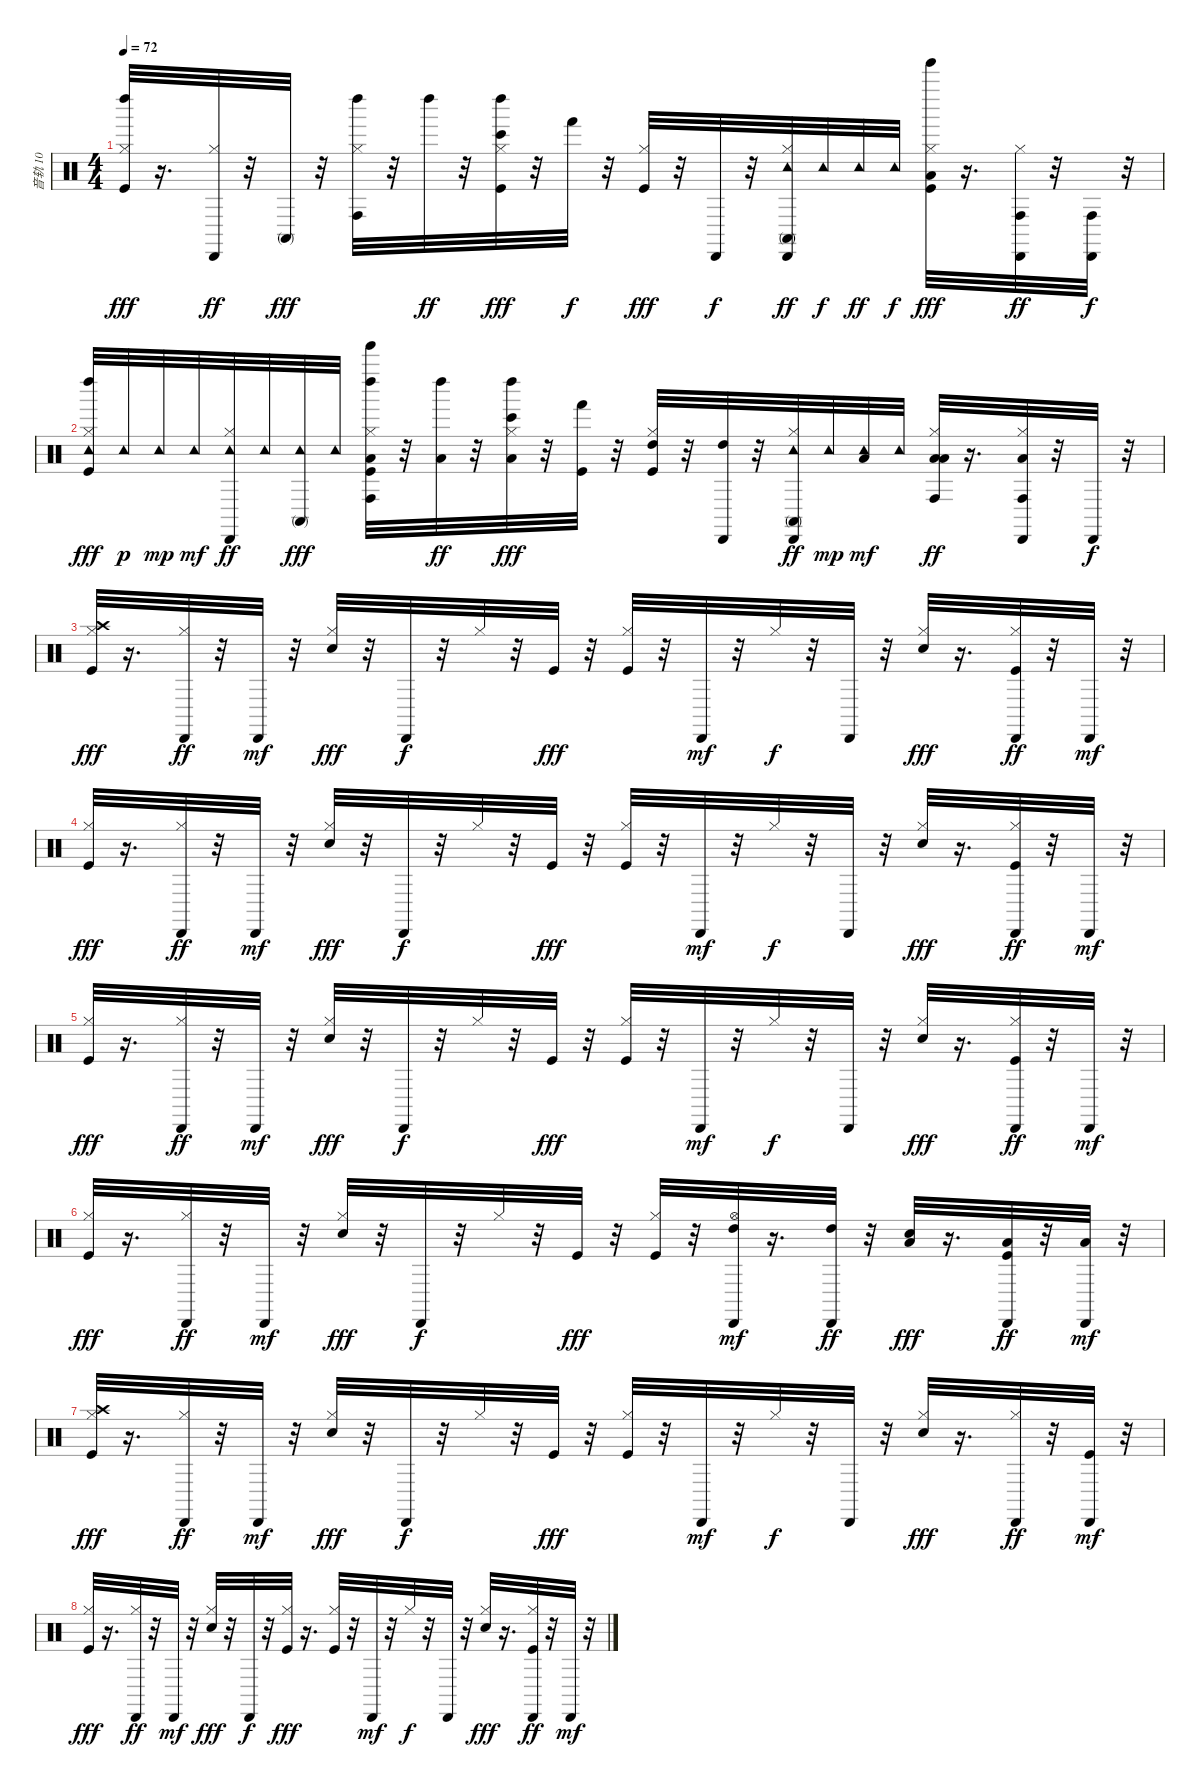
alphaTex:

\track ("音轨 10" "音轨 10") {instrument percussion}
\staff {score}
\articulation defaults
\ts (4 4)
\tempo 72
\clef neutral
\ks c
("Kick (hit)" "Hi-Hat (closed)" "Left Maraca (hit)").32{dy fff} r.16{d} ("Hi-Hat (closed)" "Cabasa (hit)").32{dy ff} r.32 "Conga high (mute)".32{dy fff} r.32 ("Hi-Hat (closed)" "Conga high (hit)" "Left Maraca (hit)").32 r.32 "Left Maraca (hit)".32{dy ff} r.32 ("Kick (hit)" "Hi-Hat (closed)" "Bongo High (hit)" "Left Maraca (hit)").32{dy fff} r.32 "Hand (hit)".32{dy f} r.32 ("Kick (hit)" "Hi-Hat (closed)").32{dy fff} r.32 "Cabasa (hit)".32{dy f} r.32 ("Hi-Hat (closed)" "Tambourine (hit)" "Conga high (mute)" "Cabasa (hit)").32{dy ff} "Tambourine (hit)".32{dy f} "Tambourine (hit)".32{dy ff} "Tambourine (hit)".32{dy f} ("Kick (hit)" "Hi-Hat (closed)" "Low Floor Tom (hit)" "Tinkle Bell (hit)").32{dy fff} r.16{d} ("Hi-Hat (closed)" "Conga high (hit)" "Cabasa (hit)").32{dy ff} r.32 ("Conga high (hit)" "Cabasa (hit)").32{dy f} r.32 |
("Kick (hit)" "Hi-Hat (closed)" "Tambourine (hit)" "Left Maraca (hit)").32{dy fff} "Tambourine (hit)".32{dy p} "Tambourine (hit)".32{dy mp} "Tambourine (hit)".32{dy mf} ("Hi-Hat (closed)" "Tambourine (hit)" "Cabasa (hit)").32{dy ff} "Tambourine (hit)".32 ("Tambourine (hit)" "Conga high (mute)").32{dy fff} "Tambourine (hit)".32 ("Kick (hit)" "Hi-Hat (closed)" "Low Floor Tom (hit)" "Tinkle Bell (hit)" "Conga high (hit)" "Left Maraca (hit)").32 r.32 ("Low Tom (hit)" "Left Maraca (hit)").32{dy ff} r.32 ("Hi-Hat (closed)" "Low Tom (hit)" "Bongo High (hit)" "Left Maraca (hit)").32{dy fff} r.32 ("Kick (hit)" "Hand (hit)").32 r.32 ("Kick (hit)" "Hi-Hat (closed)" "High Tom (hit)").32 r.32 ("High Tom (hit)" "Cabasa (hit)").32 r.32 ("Hi-Hat (closed)" "Tambourine (hit)" "Conga high (mute)" "Cabasa (hit)").32{dy ff} "Tambourine (hit)".32{dy mp} ("Low Tom (hit)" "Tambourine (hit)").32{dy mf} "Tambourine (hit)".32 ("Hi-Hat (closed)" "Low Tom (hit)" "Low Floor Tom (hit)" "Conga high (hit)").32{dy ff} r.16{d} ("Hi-Hat (closed)" "Low Floor Tom (hit)" "Conga high (hit)" "Cabasa (hit)").32 r.32 "Cabasa (hit)".32{dy f} r.32 |
("Kick (hit)" "Hi-Hat (closed)" "Crash high (hit)").32{dy fff} r.16{d} ("Hi-Hat (closed)" "Cabasa (hit)").32{dy ff} r.32 "Cabasa (hit)".32{dy mf} r.32 ("Electric Snare (hit)" "Hi-Hat (closed)").32{dy fff} r.32 "Cabasa (hit)".32{dy f} r.32 "Hi-Hat (closed)".32 r.32 "Kick (hit)".32{dy fff} r.32 ("Kick (hit)" "Hi-Hat (closed)").32 r.32 "Cabasa (hit)".32{dy mf} r.32 "Hi-Hat (closed)".32{dy f} r.32 "Cabasa (hit)".32 r.32 ("Electric Snare (hit)" "Hi-Hat (closed)").32{dy fff} r.16{d} ("Kick (hit)" "Hi-Hat (closed)" "Cabasa (hit)").32{dy ff} r.32 "Cabasa (hit)".32{dy mf} r.32 |
("Kick (hit)" "Hi-Hat (closed)").32{dy fff} r.16{d} ("Hi-Hat (closed)" "Cabasa (hit)").32{dy ff} r.32 "Cabasa (hit)".32{dy mf} r.32 ("Electric Snare (hit)" "Hi-Hat (closed)").32{dy fff} r.32 "Cabasa (hit)".32{dy f} r.32 "Hi-Hat (closed)".32 r.32 "Kick (hit)".32{dy fff} r.32 ("Kick (hit)" "Hi-Hat (closed)").32 r.32 "Cabasa (hit)".32{dy mf} r.32 "Hi-Hat (closed)".32{dy f} r.32 "Cabasa (hit)".32 r.32 ("Electric Snare (hit)" "Hi-Hat (closed)").32{dy fff} r.16{d} ("Kick (hit)" "Hi-Hat (closed)" "Cabasa (hit)").32{dy ff} r.32 "Cabasa (hit)".32{dy mf} r.32 |
("Kick (hit)" "Hi-Hat (closed)").32{dy fff} r.16{d} ("Hi-Hat (closed)" "Cabasa (hit)").32{dy ff} r.32 "Cabasa (hit)".32{dy mf} r.32 ("Electric Snare (hit)" "Hi-Hat (closed)").32{dy fff} r.32 "Cabasa (hit)".32{dy f} r.32 "Hi-Hat (closed)".32 r.32 "Kick (hit)".32{dy fff} r.32 ("Kick (hit)" "Hi-Hat (closed)").32 r.32 "Cabasa (hit)".32{dy mf} r.32 "Hi-Hat (closed)".32{dy f} r.32 "Cabasa (hit)".32 r.32 ("Electric Snare (hit)" "Hi-Hat (closed)").32{dy fff} r.16{d} ("Kick (hit)" "Hi-Hat (closed)" "Cabasa (hit)").32{dy ff} r.32 "Cabasa (hit)".32{dy mf} r.32 |
("Kick (hit)" "Hi-Hat (closed)").32{dy fff} r.16{d} ("Hi-Hat (closed)" "Cabasa (hit)").32{dy ff} r.32 "Cabasa (hit)".32{dy mf} r.32 ("Electric Snare (hit)" "Hi-Hat (closed)").32{dy fff} r.32 "Cabasa (hit)".32{dy f} r.32 "Hi-Hat (closed)".32 r.32 "Kick (hit)".32{dy fff} r.32 ("Kick (hit)" "Hi-Hat (closed)").32 r.32 ("Hi-Hat (open)" "High Tom (hit)" "Cabasa (hit)").32{dy mf} r.16{d} ("High Tom (hit)" "Cabasa (hit)").32{dy ff} r.32 ("Electric Snare (hit)" "Low Tom (hit)").32{dy fff} r.16{d} ("Kick (hit)" "Low Tom (hit)" "Cabasa (hit)").32{dy ff} r.32 ("Low Tom (hit)" "Cabasa (hit)").32{dy mf} r.32 |
("Kick (hit)" "Hi-Hat (closed)" "Crash high (hit)").32{dy fff} r.16{d} ("Hi-Hat (closed)" "Cabasa (hit)").32{dy ff} r.32 "Cabasa (hit)".32{dy mf} r.32 ("Electric Snare (hit)" "Hi-Hat (closed)").32{dy fff} r.32 "Cabasa (hit)".32{dy f} r.32 "Hi-Hat (closed)".32 r.32 "Kick (hit)".32{dy fff} r.32 ("Kick (hit)" "Hi-Hat (closed)").32 r.32 "Cabasa (hit)".32{dy mf} r.32 "Hi-Hat (closed)".32{dy f} r.32 "Cabasa (hit)".32 r.32 ("Electric Snare (hit)" "Hi-Hat (closed)").32{dy fff} r.16{d} ("Hi-Hat (closed)" "Cabasa (hit)").32{dy ff} r.32 ("Kick (hit)" "Cabasa (hit)").32{dy mf} r.32 |
("Kick (hit)" "Hi-Hat (closed)").32{dy fff} r.16{d} ("Hi-Hat (closed)" "Cabasa (hit)").32{dy ff} r.32 "Cabasa (hit)".32{dy mf} r.32 ("Electric Snare (hit)" "Hi-Hat (closed)").32{dy fff} r.32 "Cabasa (hit)".32{dy f} r.32 ("Kick (hit)" "Hi-Hat (closed)").32{dy fff} r.16{d} ("Kick (hit)" "Hi-Hat (closed)").32 r.32 "Cabasa (hit)".32{dy mf} r.32 "Hi-Hat (closed)".32{dy f} r.32 "Cabasa (hit)".32 r.32 ("Electric Snare (hit)" "Hi-Hat (closed)").32{dy fff} r.16{d} ("Kick (hit)" "Hi-Hat (closed)" "Cabasa (hit)").32{dy ff} r.32 "Cabasa (hit)".32{dy mf} r.32
